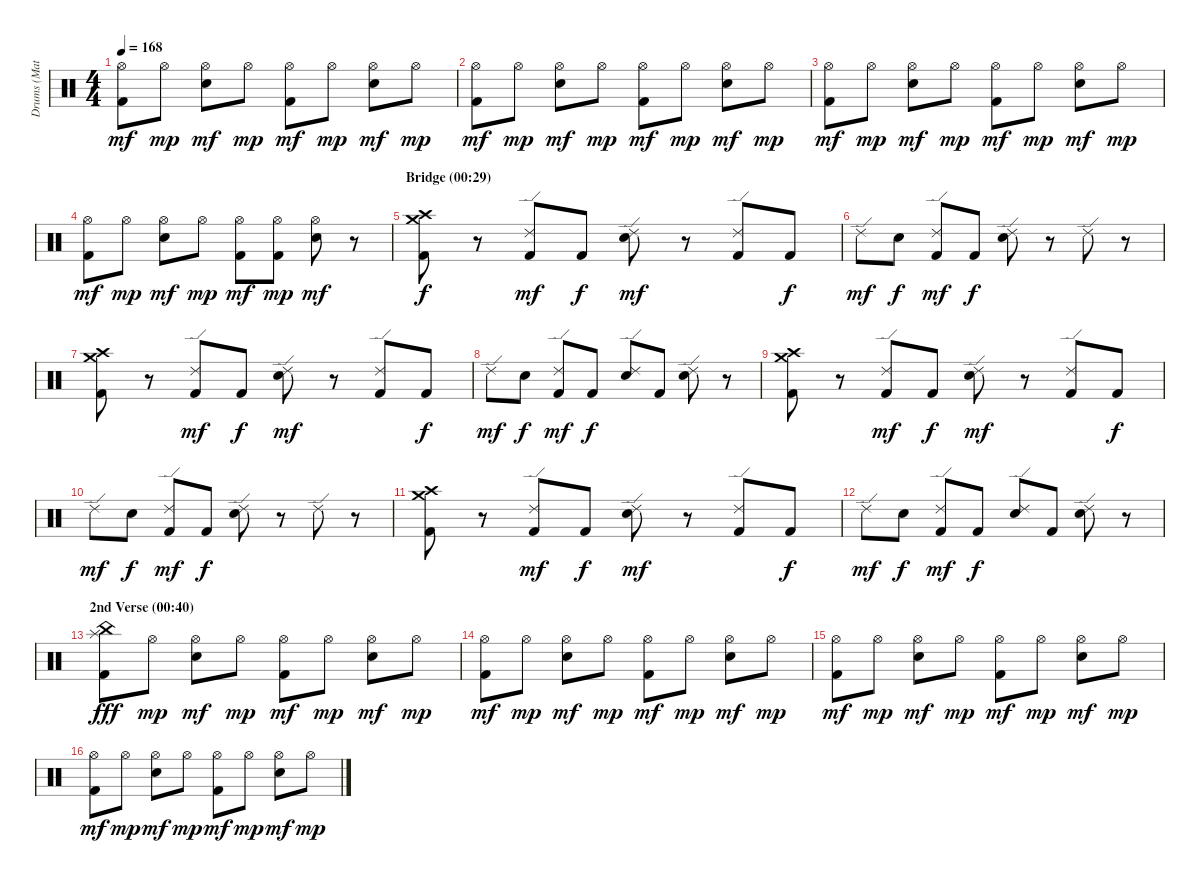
\track ("Drums (Matt Sorum)" "Drums (Mat") {instrument percussion}
\staff {score}
\articulation defaults
\ts (4 4)
\tempo 168
\clef neutral
\ks c
("Hi-Hat (open)" "Kick (hit) 2").8{dy mf} "Hi-Hat (open)".8{dy mp} ("Hi-Hat (open)" "Electric Snare (hit)").8{dy mf} "Hi-Hat (open)".8{dy mp} ("Hi-Hat (open)" "Kick (hit) 2").8{dy mf} "Hi-Hat (open)".8{dy mp} ("Hi-Hat (open)" "Electric Snare (hit)").8{dy mf} "Hi-Hat (open)".8{dy mp} |
("Hi-Hat (open)" "Kick (hit) 2").8{dy mf} "Hi-Hat (open)".8{dy mp} ("Hi-Hat (open)" "Electric Snare (hit)").8{dy mf} "Hi-Hat (open)".8{dy mp} ("Hi-Hat (open)" "Kick (hit) 2").8{dy mf} "Hi-Hat (open)".8{dy mp} ("Hi-Hat (open)" "Electric Snare (hit)").8{dy mf} "Hi-Hat (open)".8{dy mp} |
("Hi-Hat (open)" "Kick (hit) 2").8{dy mf} "Hi-Hat (open)".8{dy mp} ("Hi-Hat (open)" "Electric Snare (hit)").8{dy mf} "Hi-Hat (open)".8{dy mp} ("Hi-Hat (open)" "Kick (hit) 2").8{dy mf} "Hi-Hat (open)".8{dy mp} ("Hi-Hat (open)" "Electric Snare (hit)").8{dy mf} "Hi-Hat (open)".8{dy mp} |
("Hi-Hat (open)" "Kick (hit) 2").8{dy mf} "Hi-Hat (open)".8{dy mp} ("Hi-Hat (open)" "Electric Snare (hit)").8{dy mf} "Hi-Hat (open)".8{dy mp} ("Hi-Hat (open)" "Kick (hit) 2").8{dy mf} ("Hi-Hat (open)" "Kick (hit) 2").8{dy mp} ("Hi-Hat (open)" "Electric Snare (hit)").8{dy mf} r.8 |
\section ("" "Bridge (00:29)")
("Crash high (hit)" "Crash medium (hit)" "Kick (hit) 2").8{dy f} r.8 ("Ride (edge) 2" "Kick (hit) 2").8{dy mf} "Kick (hit) 2".8{dy f} ("Ride (edge) 2" "Electric Snare (hit)").8{dy mf} r.8 ("Ride (edge) 2" "Kick (hit) 2").8 "Kick (hit) 2".8{dy f} |
"Ride (edge) 2".8{dy mf} "Electric Snare (hit)".8{dy f} ("Ride (edge) 2" "Kick (hit) 2").8{dy mf} "Kick (hit) 2".8{dy f} ("Ride (edge) 2" "Electric Snare (hit)").8 r.8 "Ride (edge) 2".8 r.8 |
("Crash high (hit)" "Crash medium (hit)" "Kick (hit) 2").8 r.8 ("Ride (edge) 2" "Kick (hit) 2").8{dy mf} "Kick (hit) 2".8{dy f} ("Ride (edge) 2" "Electric Snare (hit)").8{dy mf} r.8 ("Ride (edge) 2" "Kick (hit) 2").8 "Kick (hit) 2".8{dy f} |
"Ride (edge) 2".8{dy mf} "Electric Snare (hit)".8{dy f} ("Ride (edge) 2" "Kick (hit) 2").8{dy mf} "Kick (hit) 2".8{dy f} ("Ride (edge) 2" "Electric Snare (hit)").8 "Kick (hit) 2".8 ("Ride (edge) 2" "Electric Snare (hit)").8 r.8 |
("Crash high (hit)" "Crash medium (hit)" "Kick (hit) 2").8 r.8 ("Ride (edge) 2" "Kick (hit) 2").8{dy mf} "Kick (hit) 2".8{dy f} ("Ride (edge) 2" "Electric Snare (hit)").8{dy mf} r.8 ("Ride (edge) 2" "Kick (hit) 2").8 "Kick (hit) 2".8{dy f} |
"Ride (edge) 2".8{dy mf} "Electric Snare (hit)".8{dy f} ("Ride (edge) 2" "Kick (hit) 2").8{dy mf} "Kick (hit) 2".8{dy f} ("Ride (edge) 2" "Electric Snare (hit)").8 r.8 "Ride (edge) 2".8 r.8 |
("Crash high (hit)" "Crash medium (hit)" "Kick (hit) 2").8 r.8 ("Ride (edge) 2" "Kick (hit) 2").8{dy mf} "Kick (hit) 2".8{dy f} ("Ride (edge) 2" "Electric Snare (hit)").8{dy mf} r.8 ("Ride (edge) 2" "Kick (hit) 2").8 "Kick (hit) 2".8{dy f} |
"Ride (edge) 2".8{dy mf} "Electric Snare (hit)".8{dy f} ("Ride (edge) 2" "Kick (hit) 2").8{dy mf} "Kick (hit) 2".8{dy f} ("Ride (edge) 2" "Electric Snare (hit)").8 "Kick (hit) 2".8 ("Ride (edge) 2" "Electric Snare (hit)").8 r.8 |
\section ("" "2nd Verse (00:40)")
("China (hit)" "Splash (hit)" "Kick (hit) 2").8{dy fff} "Hi-Hat (open)".8{dy mp} ("Hi-Hat (open)" "Electric Snare (hit)").8{dy mf} "Hi-Hat (open)".8{dy mp} ("Hi-Hat (open)" "Kick (hit) 2").8{dy mf} "Hi-Hat (open)".8{dy mp} ("Hi-Hat (open)" "Electric Snare (hit)").8{dy mf} "Hi-Hat (open)".8{dy mp} |
("Hi-Hat (open)" "Kick (hit) 2").8{dy mf} "Hi-Hat (open)".8{dy mp} ("Hi-Hat (open)" "Electric Snare (hit)").8{dy mf} "Hi-Hat (open)".8{dy mp} ("Hi-Hat (open)" "Kick (hit) 2").8{dy mf} "Hi-Hat (open)".8{dy mp} ("Hi-Hat (open)" "Electric Snare (hit)").8{dy mf} "Hi-Hat (open)".8{dy mp} |
("Hi-Hat (open)" "Kick (hit) 2").8{dy mf} "Hi-Hat (open)".8{dy mp} ("Hi-Hat (open)" "Electric Snare (hit)").8{dy mf} "Hi-Hat (open)".8{dy mp} ("Hi-Hat (open)" "Kick (hit) 2").8{dy mf} "Hi-Hat (open)".8{dy mp} ("Hi-Hat (open)" "Electric Snare (hit)").8{dy mf} "Hi-Hat (open)".8{dy mp} |
("Hi-Hat (open)" "Kick (hit) 2").8{dy mf} "Hi-Hat (open)".8{dy mp} ("Hi-Hat (open)" "Electric Snare (hit)").8{dy mf} "Hi-Hat (open)".8{dy mp} ("Hi-Hat (open)" "Kick (hit) 2").8{dy mf} "Hi-Hat (open)".8{dy mp} ("Hi-Hat (open)" "Electric Snare (hit)").8{dy mf} "Hi-Hat (open)".8{dy mp}
